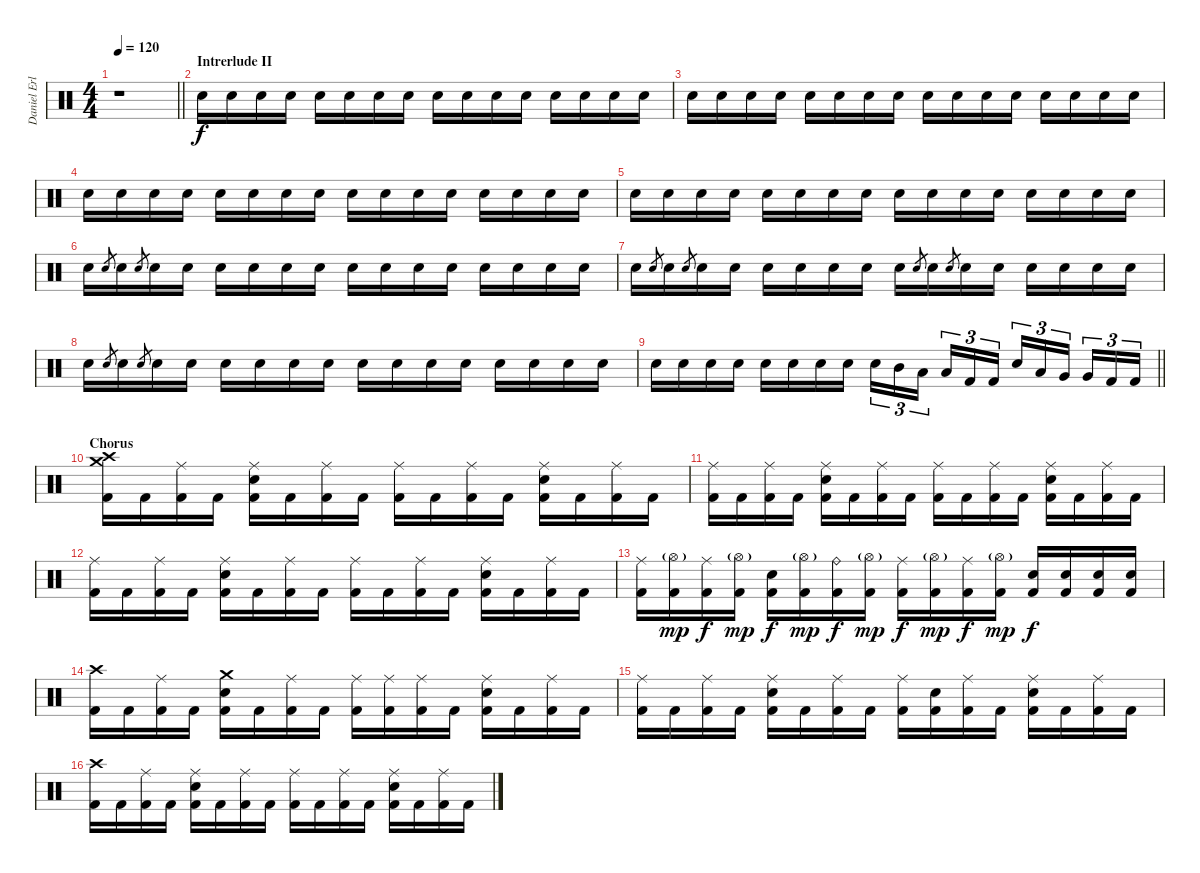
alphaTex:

\track ("Daniel Erlandson (Drums)" "Daniel Erl") {instrument percussion}
\staff {score}
\articulation defaults
\ts (4 4)
\tempo 120
\clef neutral
\barLineRight lightlight
\ks c
r.1{dy f} |
\section ("" "Intrerlude II")
"Electric Snare (hit)".16{volume 4} "Electric Snare (hit)".16 "Electric Snare (hit)".16 "Electric Snare (hit)".16 "Electric Snare (hit)".16 "Electric Snare (hit)".16 "Electric Snare (hit)".16 "Electric Snare (hit)".16 "Electric Snare (hit)".16 "Electric Snare (hit)".16 "Electric Snare (hit)".16 "Electric Snare (hit)".16 "Electric Snare (hit)".16 "Electric Snare (hit)".16 "Electric Snare (hit)".16 "Electric Snare (hit)".16 |
"Electric Snare (hit)".16{volume 5} "Electric Snare (hit)".16 "Electric Snare (hit)".16 "Electric Snare (hit)".16 "Electric Snare (hit)".16 "Electric Snare (hit)".16 "Electric Snare (hit)".16 "Electric Snare (hit)".16 "Electric Snare (hit)".16 "Electric Snare (hit)".16 "Electric Snare (hit)".16 "Electric Snare (hit)".16 "Electric Snare (hit)".16 "Electric Snare (hit)".16 "Electric Snare (hit)".16 "Electric Snare (hit)".16 |
"Electric Snare (hit)".16 "Electric Snare (hit)".16 "Electric Snare (hit)".16 "Electric Snare (hit)".16 "Electric Snare (hit)".16 "Electric Snare (hit)".16 "Electric Snare (hit)".16 "Electric Snare (hit)".16 "Electric Snare (hit)".16 "Electric Snare (hit)".16 "Electric Snare (hit)".16 "Electric Snare (hit)".16 "Electric Snare (hit)".16 "Electric Snare (hit)".16 "Electric Snare (hit)".16 "Electric Snare (hit)".16 |
"Electric Snare (hit)".16{volume 6} "Electric Snare (hit)".16 "Electric Snare (hit)".16 "Electric Snare (hit)".16 "Electric Snare (hit)".16 "Electric Snare (hit)".16 "Electric Snare (hit)".16 "Electric Snare (hit)".16 "Electric Snare (hit)".16 "Electric Snare (hit)".16 "Electric Snare (hit)".16 "Electric Snare (hit)".16 "Electric Snare (hit)".16 "Electric Snare (hit)".16 "Electric Snare (hit)".16 "Electric Snare (hit)".16 |
"Electric Snare (hit)".16{volume 7} "Electric Snare (hit)".8{gr} "Electric Snare (hit)".16 "Electric Snare (hit)".8{gr} "Electric Snare (hit)".16 "Electric Snare (hit)".16 "Electric Snare (hit)".16 "Electric Snare (hit)".16 "Electric Snare (hit)".16 "Electric Snare (hit)".16 "Electric Snare (hit)".16 "Electric Snare (hit)".16 "Electric Snare (hit)".16 "Electric Snare (hit)".16 "Electric Snare (hit)".16 "Electric Snare (hit)".16 "Electric Snare (hit)".16 "Electric Snare (hit)".16 |
"Electric Snare (hit)".16{volume 8} "Electric Snare (hit)".8{gr} "Electric Snare (hit)".16 "Electric Snare (hit)".8{gr} "Electric Snare (hit)".16 "Electric Snare (hit)".16 "Electric Snare (hit)".16 "Electric Snare (hit)".16 "Electric Snare (hit)".16 "Electric Snare (hit)".16 "Electric Snare (hit)".16 "Electric Snare (hit)".8{gr} "Electric Snare (hit)".16 "Electric Snare (hit)".8{gr} "Electric Snare (hit)".16 "Electric Snare (hit)".16 "Electric Snare (hit)".16 "Electric Snare (hit)".16 "Electric Snare (hit)".16 "Electric Snare (hit)".16 |
"Electric Snare (hit)".16{volume 9} "Electric Snare (hit)".8{gr} "Electric Snare (hit)".16 "Electric Snare (hit)".8{gr} "Electric Snare (hit)".16 "Electric Snare (hit)".16 "Electric Snare (hit)".16 "Electric Snare (hit)".16 "Electric Snare (hit)".16 "Electric Snare (hit)".16 "Electric Snare (hit)".16{volume 9} "Electric Snare (hit)".16 "Electric Snare (hit)".16 "Electric Snare (hit)".16 "Electric Snare (hit)".16 "Electric Snare (hit)".16 "Electric Snare (hit)".16 "Electric Snare (hit)".16 |
\barLineRight lightlight "Electric Snare (hit)".16{volume 11} "Electric Snare (hit)".16 "Electric Snare (hit)".16 "Electric Snare (hit)".16 "Electric Snare (hit)".16{volume 12} "Electric Snare (hit)".16 "Electric Snare (hit)".16 "Electric Snare (hit)".16 "Electric Snare (hit)".16{tu (3 2) volume 16} "Mid Tom (hit)".16{tu (3 2)} "Low Tom (hit)".16{tu (3 2) beam splitsecondary} "Low Tom (hit)".16{tu (3 2)} "Kick (hit) 2".16{tu (3 2)} "Kick (hit) 2".16{tu (3 2)} "Electric Snare (hit)".16{tu (3 2)} "Low Tom (hit)".16{tu (3 2)} "Very Low Tom (hit)".16{tu (3 2) beam splitsecondary} "Very Low Tom (hit)".16{tu (3 2)} "Kick (hit) 2".16{tu (3 2)} "Kick (hit) 2".16{tu (3 2)}
|
\section ("" "Chorus")
("Crash medium (hit)" "Crash high (hit)" "Kick (hit) 2").16 "Kick (hit) 2".16 ("Ride (middle)" "Kick (hit) 2").16 "Kick (hit) 2".16 ("Ride (middle)" "Electric Snare (hit)" "Kick (hit) 2").16 "Kick (hit) 2".16 ("Ride (middle)" "Kick (hit) 2").16 "Kick (hit) 2".16 ("Ride (middle)" "Kick (hit) 2").16 "Kick (hit) 2".16 ("Ride (middle)" "Kick (hit) 2").16 "Kick (hit) 2".16 ("Ride (middle)" "Electric Snare (hit)" "Kick (hit) 2").16 "Kick (hit) 2".16 ("Ride (middle)" "Kick (hit) 2").16 "Kick (hit) 2".16 |
("Ride (middle)" "Kick (hit) 2").16 "Kick (hit) 2".16 ("Ride (middle)" "Kick (hit) 2").16 "Kick (hit) 2".16 ("Ride (middle)" "Electric Snare (hit)" "Kick (hit) 2").16 "Kick (hit) 2".16 ("Ride (middle)" "Kick (hit) 2").16 "Kick (hit) 2".16 ("Ride (middle)" "Kick (hit) 2").16 "Kick (hit) 2".16 ("Ride (middle)" "Kick (hit) 2").16 "Kick (hit) 2".16 ("Ride (middle)" "Electric Snare (hit)" "Kick (hit) 2").16 "Kick (hit) 2".16 ("Ride (middle)" "Kick (hit) 2").16 "Kick (hit) 2".16 |
("Ride (middle)" "Kick (hit) 2").16 "Kick (hit) 2".16 ("Ride (middle)" "Kick (hit) 2").16 "Kick (hit) 2".16 ("Ride (middle)" "Electric Snare (hit)" "Kick (hit) 2").16 "Kick (hit) 2".16 ("Ride (middle)" "Kick (hit) 2").16 "Kick (hit) 2".16 ("Ride (middle)" "Kick (hit) 2").16 "Kick (hit) 2".16 ("Ride (middle)" "Kick (hit) 2").16 "Kick (hit) 2".16 ("Ride (middle)" "Electric Snare (hit)" "Kick (hit) 2").16 "Kick (hit) 2".16 ("Ride (middle)" "Kick (hit) 2").16 "Kick (hit) 2".16 |
("Ride (middle)" "Kick (hit) 2").16 ("Hi-Hat (open)"{g} "Kick (hit) 2").16{dy mp} ("Ride (middle)" "Kick (hit) 2").16{dy f} ("Hi-Hat (open)"{g} "Kick (hit) 2").16{dy mp} ("Electric Snare (hit)" "Kick (hit) 2").16{dy f} ("Hi-Hat (open)"{g} "Kick (hit) 2").16{dy mp} ("Ride (bell)" "Kick (hit) 2").16{dy f} ("Hi-Hat (open)"{g} "Kick (hit) 2").16{dy mp} ("Ride (middle)" "Kick (hit) 2").16{dy f} ("Hi-Hat (open)"{g} "Kick (hit) 2").16{dy mp} ("Ride (middle)" "Kick (hit) 2").16{dy f} ("Hi-Hat (open)"{g} "Kick (hit) 2").16{dy mp} ("Electric Snare (hit)" "Kick (hit) 2").16{dy f} ("Electric Snare (hit)" "Kick (hit) 2").16 ("Electric Snare (hit)" "Kick (hit) 2").16 ("Electric Snare (hit)" "Kick (hit) 2").16 |
("Crash high (hit)" "Kick (hit) 2").16 "Kick (hit) 2".16 ("Ride (middle)" "Kick (hit) 2").16 "Kick (hit) 2".16 ("Crash medium (hit)" "Electric Snare (hit)" "Kick (hit) 2").16 "Kick (hit) 2".16 ("Ride (middle)" "Kick (hit) 2").16 "Kick (hit) 2".16 ("Ride (middle)" "Kick (hit) 2").16 ("Ride (middle)" "Kick (hit) 2").16 ("Ride (middle)" "Kick (hit) 2").16 "Kick (hit) 2".16 ("Ride (middle)" "Electric Snare (hit)" "Kick (hit) 2").16 "Kick (hit) 2".16 ("Ride (middle)" "Kick (hit) 2").16 "Kick (hit) 2".16 |
("Ride (middle)" "Kick (hit) 2").16 "Kick (hit) 2".16 ("Ride (middle)" "Kick (hit) 2").16 "Kick (hit) 2".16 ("Ride (middle)" "Electric Snare (hit)" "Kick (hit) 2").16 "Kick (hit) 2".16 ("Ride (middle)" "Kick (hit) 2").16 "Kick (hit) 2".16 ("Ride (middle)" "Kick (hit) 2").16 ("Electric Snare (hit)" "Kick (hit) 2").16 ("Ride (middle)" "Kick (hit) 2").16 "Kick (hit) 2".16 ("Ride (middle)" "Electric Snare (hit)" "Kick (hit) 2").16 "Kick (hit) 2".16 ("Ride (middle)" "Kick (hit) 2").16 "Kick (hit) 2".16 |
("Crash high (hit)" "Kick (hit) 2").16 "Kick (hit) 2".16 ("Ride (middle)" "Kick (hit) 2").16 "Kick (hit) 2".16 ("Ride (middle)" "Electric Snare (hit)" "Kick (hit) 2").16 "Kick (hit) 2".16 ("Ride (middle)" "Kick (hit) 2").16 "Kick (hit) 2".16 ("Ride (middle)" "Kick (hit) 2").16 "Kick (hit) 2".16 ("Ride (middle)" "Kick (hit) 2").16 "Kick (hit) 2".16 ("Ride (middle)" "Electric Snare (hit)" "Kick (hit) 2").16 "Kick (hit) 2".16 ("Ride (middle)" "Kick (hit) 2").16 "Kick (hit) 2".16
